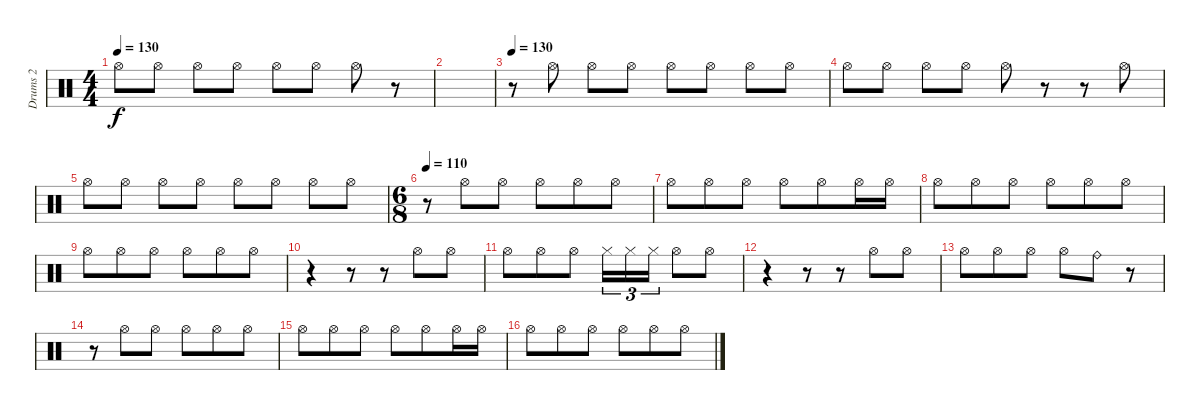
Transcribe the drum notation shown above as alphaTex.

\track ("Drums 2" "Drums 2") {instrument percussion}
\staff {score}
\articulation defaults
\ts (4 4)
\tempo 130
\clef neutral
\ks c "Hi-Hat (open)".8{dy f} "Hi-Hat (open)".8 "Hi-Hat (open)".8 "Hi-Hat (open)".8 "Hi-Hat (open)".8 "Hi-Hat (open)".8 "Hi-Hat (open)".8
r.8 |
|
\tempo 130
r.8 "Hi-Hat (open)".8 "Hi-Hat (open)".8 "Hi-Hat (open)".8 "Hi-Hat (open)".8 "Hi-Hat (open)".8 "Hi-Hat (open)".8 "Hi-Hat (open)".8 |
"Hi-Hat (open)".8 "Hi-Hat (open)".8 "Hi-Hat (open)".8 "Hi-Hat (open)".8 "Hi-Hat (open)".8 r.8 r.8 "Hi-Hat (open)".8 |
"Hi-Hat (open)".8 "Hi-Hat (open)".8 "Hi-Hat (open)".8 "Hi-Hat (open)".8 "Hi-Hat (open)".8 "Hi-Hat (open)".8 "Hi-Hat (open)".8 "Hi-Hat (open)".8 |
\ts (6 8)
\tempo 110
r.8 "Hi-Hat (open)".8 "Hi-Hat (open)".8 "Hi-Hat (open)".8 "Hi-Hat (open)".8 "Hi-Hat (open)".8 |
"Hi-Hat (open)".8 "Hi-Hat (open)".8 "Hi-Hat (open)".8 "Hi-Hat (open)".8 "Hi-Hat (open)".8 "Hi-Hat (open)".16 "Hi-Hat (open)".16 |
"Hi-Hat (open)".8 "Hi-Hat (open)".8 "Hi-Hat (open)".8 "Hi-Hat (open)".8 "Hi-Hat (open)".8 "Hi-Hat (open)".8 |
"Hi-Hat (open)".8 "Hi-Hat (open)".8 "Hi-Hat (open)".8 "Hi-Hat (open)".8 "Hi-Hat (open)".8 "Hi-Hat (open)".8 |
r.4 r.8 r.8 "Hi-Hat (open)".8 "Hi-Hat (open)".8 |
"Hi-Hat (open)".8 "Hi-Hat (open)".8 "Hi-Hat (open)".8 "Hi-Hat (closed)".16{tu (3 2)} "Hi-Hat (closed)".16{tu (3 2)} "Hi-Hat (closed)".16{tu (3 2)} "Hi-Hat (open)".8 "Hi-Hat (open)".8 |
r.4 r.8 r.8 "Hi-Hat (open)".8 "Hi-Hat (open)".8 |
"Hi-Hat (open)".8 "Hi-Hat (open)".8 "Hi-Hat (open)".8 "Hi-Hat (open)".8 "Ride (bell)".8 r.8 |
r.8 "Hi-Hat (open)".8 "Hi-Hat (open)".8 "Hi-Hat (open)".8 "Hi-Hat (open)".8 "Hi-Hat (open)".8 |
"Hi-Hat (open)".8 "Hi-Hat (open)".8 "Hi-Hat (open)".8 "Hi-Hat (open)".8 "Hi-Hat (open)".8 "Hi-Hat (open)".16 "Hi-Hat (open)".16 |
"Hi-Hat (open)".8 "Hi-Hat (open)".8 "Hi-Hat (open)".8 "Hi-Hat (open)".8 "Hi-Hat (open)".8 "Hi-Hat (open)".8
